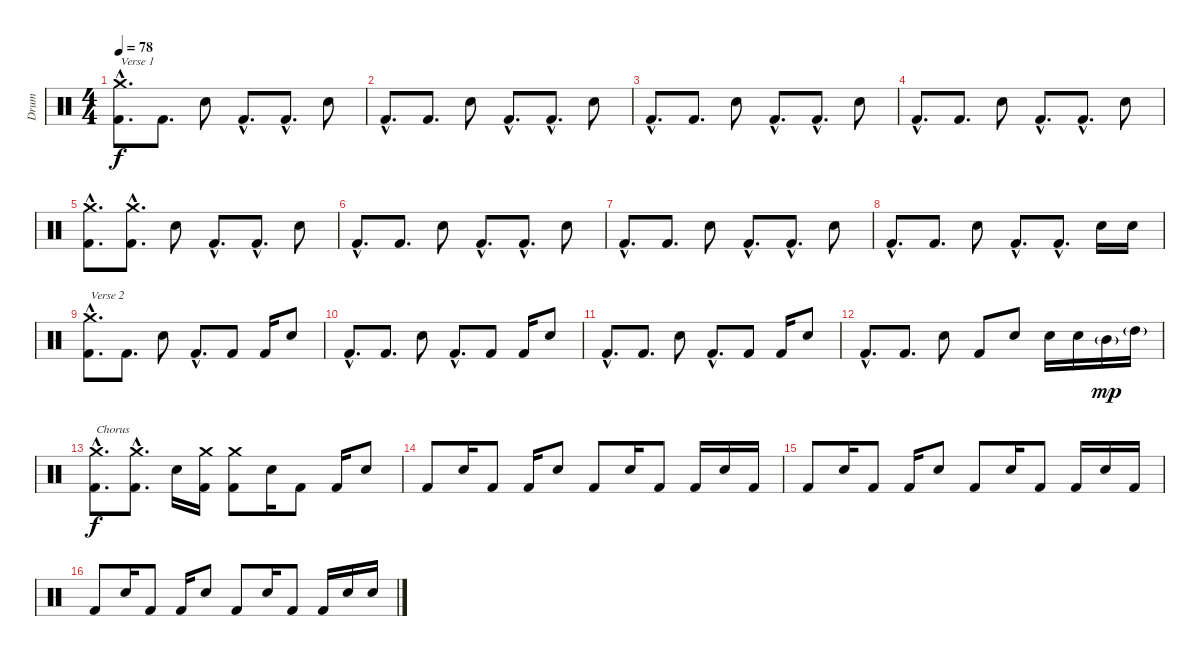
\track ("Drum" "Drum") {instrument percussion}
\staff {score}
\articulation defaults
\ts (4 4)
\tempo 78
\clef neutral
\ks c
("Crash medium (hit)"{hac} "Kick (hit) 2"{hac}).8{d txt "Verse 1" dy f} "Kick (hit) 2".8{d} "Electric Snare (hit)".8 "Kick (hit) 2"{hac}.8{d} "Kick (hit) 2"{hac}.8{d} "Electric Snare (hit)".8 |
"Kick (hit) 2"{hac}.8{d} "Kick (hit) 2".8{d} "Electric Snare (hit)".8 "Kick (hit) 2"{hac}.8{d} "Kick (hit) 2"{hac}.8{d} "Electric Snare (hit)".8 |
"Kick (hit) 2"{hac}.8{d} "Kick (hit) 2".8{d} "Electric Snare (hit)".8 "Kick (hit) 2"{hac}.8{d} "Kick (hit) 2"{hac}.8{d} "Electric Snare (hit)".8 |
"Kick (hit) 2"{hac}.8{d} "Kick (hit) 2".8{d} "Electric Snare (hit)".8 "Kick (hit) 2"{hac}.8{d} "Kick (hit) 2"{hac}.8{d} "Electric Snare (hit)".8 |
("Crash medium (hit)"{hac} "Kick (hit) 2"{hac}).8{d} ("Crash medium (hit)"{hac} "Kick (hit) 2").8{d} "Electric Snare (hit)".8 "Kick (hit) 2"{hac}.8{d} "Kick (hit) 2"{hac}.8{d} "Electric Snare (hit)".8 |
"Kick (hit) 2"{hac}.8{d} "Kick (hit) 2".8{d} "Electric Snare (hit)".8 "Kick (hit) 2"{hac}.8{d} "Kick (hit) 2"{hac}.8{d} "Electric Snare (hit)".8 |
"Kick (hit) 2"{hac}.8{d} "Kick (hit) 2".8{d} "Electric Snare (hit)".8 "Kick (hit) 2"{hac}.8{d} "Kick (hit) 2"{hac}.8{d} "Electric Snare (hit)".8 |
"Kick (hit) 2"{hac}.8{d} "Kick (hit) 2".8{d} "Electric Snare (hit)".8 "Kick (hit) 2"{hac}.8{d} "Kick (hit) 2"{hac}.8{d} "Electric Snare (hit)".16 "Electric Snare (hit)".16 |
("Crash medium (hit)"{hac} "Kick (hit) 2"{hac}).8{d txt "Verse 2"} "Kick (hit) 2".8{d} "Electric Snare (hit)".8 "Kick (hit) 2"{hac}.8{d} "Kick (hit) 2".8 "Kick (hit) 2".16 "Electric Snare (hit)".8 |
"Kick (hit) 2"{hac}.8{d} "Kick (hit) 2".8{d} "Electric Snare (hit)".8 "Kick (hit) 2"{hac}.8{d} "Kick (hit) 2".8 "Kick (hit) 2".16 "Electric Snare (hit)".8 |
"Kick (hit) 2"{hac}.8{d} "Kick (hit) 2".8{d} "Electric Snare (hit)".8 "Kick (hit) 2"{hac}.8{d} "Kick (hit) 2".8 "Kick (hit) 2".16 "Electric Snare (hit)".8 |
"Kick (hit) 2"{hac}.8{d} "Kick (hit) 2".8{d} "Electric Snare (hit)".8 "Kick (hit) 2".8 "Electric Snare (hit)".8 "Electric Snare (hit)".16 "Electric Snare (hit)".16 "Mid Tom (hit)"{g}.16{dy mp} "High Tom (hit)"{g}.16 |
("Crash medium (hit)"{hac} "Kick (hit) 2"{hac}).8{d txt "Chorus" dy f} ("Crash medium (hit)"{hac} "Kick (hit) 2"{hac}).8{d} "Electric Snare (hit)".16 ("Crash medium (hit)" "Kick (hit) 2").16 ("Crash medium (hit)" "Kick (hit) 2").8 "Electric Snare (hit)".16 "Kick (hit) 2".8 "Kick (hit) 2".16 "Electric Snare (hit)".8 |
"Kick (hit) 2".8 "Electric Snare (hit)".16 "Kick (hit) 2".8 "Kick (hit) 2".16 "Electric Snare (hit)".8 "Kick (hit) 2".8 "Electric Snare (hit)".16 "Kick (hit) 2".8 "Kick (hit) 2".16 "Electric Snare (hit)".16 "Kick (hit) 2".16 |
"Kick (hit) 2".8 "Electric Snare (hit)".16 "Kick (hit) 2".8 "Kick (hit) 2".16 "Electric Snare (hit)".8 "Kick (hit) 2".8 "Electric Snare (hit)".16 "Kick (hit) 2".8 "Kick (hit) 2".16 "Electric Snare (hit)".16 "Kick (hit) 2".16 |
"Kick (hit) 2".8 "Electric Snare (hit)".16 "Kick (hit) 2".8 "Kick (hit) 2".16 "Electric Snare (hit)".8 "Kick (hit) 2".8 "Electric Snare (hit)".16 "Kick (hit) 2".8 "Kick (hit) 2".16 "Electric Snare (hit)".16 "Electric Snare (hit)".16
